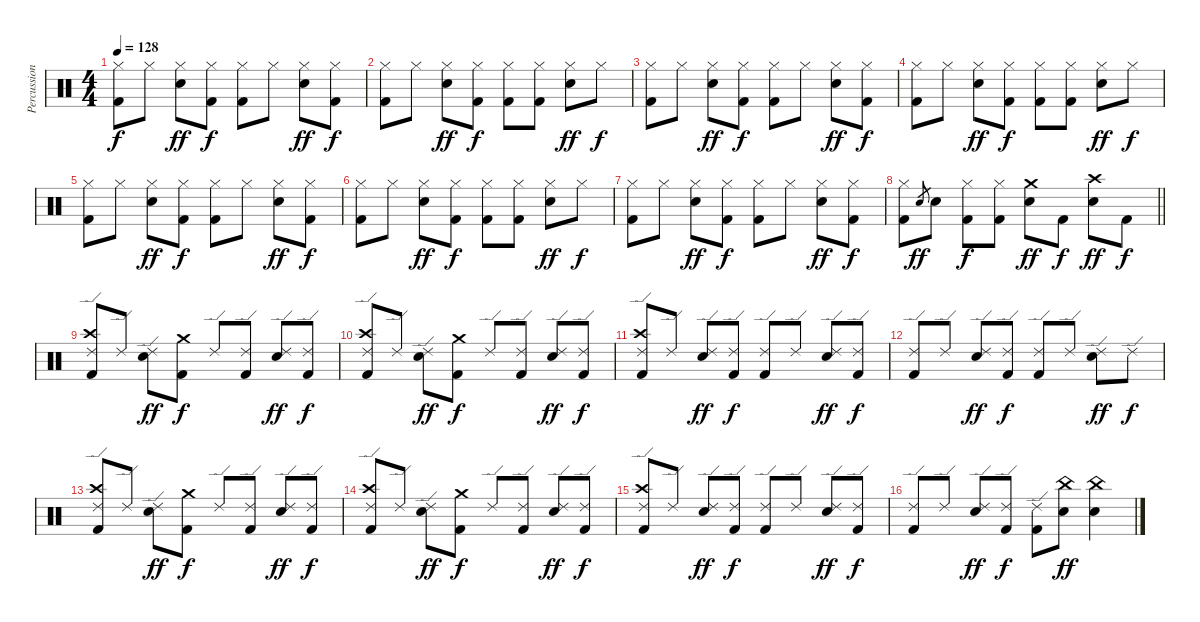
\track ("Percussion" "Percussion") {instrument percussion}
\staff {score}
\articulation defaults
\ts (4 4)
\tempo 128
\clef neutral
\ks c
("Hi-Hat (closed)" "Kick (hit) 2").8{dy f} "Hi-Hat (closed)".8 ("Hi-Hat (closed)" "Snare (hit) 2").8{dy ff} ("Hi-Hat (closed)" "Kick (hit) 2").8{dy f} ("Hi-Hat (closed)" "Kick (hit) 2").8 "Hi-Hat (closed)".8 ("Hi-Hat (closed)" "Snare (hit) 2").8{dy ff} ("Hi-Hat (closed)" "Kick (hit) 2").8{dy f} |
("Hi-Hat (closed)" "Kick (hit) 2").8 "Hi-Hat (closed)".8 ("Hi-Hat (closed)" "Snare (hit) 2").8{dy ff} ("Hi-Hat (closed)" "Kick (hit) 2").8{dy f} ("Hi-Hat (closed)" "Kick (hit) 2").8 ("Hi-Hat (closed)" "Kick (hit) 2").8 ("Hi-Hat (closed)" "Snare (hit) 2").8{dy ff} "Hi-Hat (closed)".8{dy f} |
("Hi-Hat (closed)" "Kick (hit) 2").8 "Hi-Hat (closed)".8 ("Hi-Hat (closed)" "Snare (hit) 2").8{dy ff} ("Hi-Hat (closed)" "Kick (hit) 2").8{dy f} ("Hi-Hat (closed)" "Kick (hit) 2").8 "Hi-Hat (closed)".8 ("Hi-Hat (closed)" "Snare (hit) 2").8{dy ff} ("Hi-Hat (closed)" "Kick (hit) 2").8{dy f} |
("Hi-Hat (closed)" "Kick (hit) 2").8 "Hi-Hat (closed)".8 ("Hi-Hat (closed)" "Snare (hit) 2").8{dy ff} ("Hi-Hat (closed)" "Kick (hit) 2").8{dy f} ("Hi-Hat (closed)" "Kick (hit) 2").8 ("Hi-Hat (closed)" "Kick (hit) 2").8 ("Hi-Hat (closed)" "Snare (hit) 2").8{dy ff} "Hi-Hat (closed)".8{dy f} |
("Hi-Hat (closed)" "Kick (hit) 2").8 "Hi-Hat (closed)".8 ("Hi-Hat (closed)" "Snare (hit) 2").8{dy ff} ("Hi-Hat (closed)" "Kick (hit) 2").8{dy f} ("Hi-Hat (closed)" "Kick (hit) 2").8 "Hi-Hat (closed)".8 ("Hi-Hat (closed)" "Snare (hit) 2").8{dy ff} ("Hi-Hat (closed)" "Kick (hit) 2").8{dy f} |
("Hi-Hat (closed)" "Kick (hit) 2").8 "Hi-Hat (closed)".8 ("Hi-Hat (closed)" "Snare (hit) 2").8{dy ff} ("Hi-Hat (closed)" "Kick (hit) 2").8{dy f} ("Hi-Hat (closed)" "Kick (hit) 2").8 ("Hi-Hat (closed)" "Kick (hit) 2").8 ("Hi-Hat (closed)" "Snare (hit) 2").8{dy ff} "Hi-Hat (closed)".8{dy f} |
("Hi-Hat (closed)" "Kick (hit) 2").8 "Hi-Hat (closed)".8 ("Hi-Hat (closed)" "Snare (hit) 2").8{dy ff} ("Hi-Hat (closed)" "Kick (hit) 2").8{dy f} ("Hi-Hat (closed)" "Kick (hit) 2").8 "Hi-Hat (closed)".8 ("Hi-Hat (closed)" "Snare (hit) 2").8{dy ff} ("Hi-Hat (closed)" "Kick (hit) 2").8{dy f} |
\barLineRight lightlight
("Hi-Hat (closed)" "Kick (hit) 2").8 "Snare (hit) 2".8{gr dy ff} "Snare (hit) 2".8 ("Hi-Hat (closed)" "Kick (hit) 2").8{dy f} ("Hi-Hat (closed)" "Kick (hit) 2").8 ("Crash medium (hit)" "Snare (hit) 2").8{dy ff} "Kick (hit) 2".8{dy f} ("Crash high (hit)" "Snare (hit) 2").8{dy ff} "Kick (hit) 2".8{dy f} |
("Crash high (hit)" "Ride (edge) 2" "Kick (hit) 2").8 "Ride (edge) 2".8 ("Ride (edge) 2" "Snare (hit) 2").8{dy ff} ("Crash medium (hit)" "Kick (hit) 2").8{dy f} "Ride (edge) 2".8 ("Ride (edge) 2" "Kick (hit) 2").8 ("Ride (edge) 2" "Snare (hit) 2").8{dy ff} ("Ride (edge) 2" "Kick (hit) 2").8{dy f} |
("Crash high (hit)" "Ride (edge) 2" "Kick (hit) 2").8 "Ride (edge) 2".8 ("Ride (edge) 2" "Snare (hit) 2").8{dy ff} ("Crash medium (hit)" "Kick (hit) 2").8{dy f} "Ride (edge) 2".8 ("Ride (edge) 2" "Kick (hit) 2").8 ("Ride (edge) 2" "Snare (hit) 2").8{dy ff} ("Ride (edge) 2" "Kick (hit) 2").8{dy f} |
("Crash high (hit)" "Ride (edge) 2" "Kick (hit) 2").8 "Ride (edge) 2".8 ("Ride (edge) 2" "Snare (hit) 2").8{dy ff} ("Ride (edge) 2" "Kick (hit) 2").8{dy f} ("Ride (edge) 2" "Kick (hit) 2").8 "Ride (edge) 2".8 ("Ride (edge) 2" "Snare (hit) 2").8{dy ff} ("Ride (edge) 2" "Kick (hit) 2").8{dy f} |
("Ride (edge) 2" "Kick (hit) 2").8 "Ride (edge) 2".8 ("Ride (edge) 2" "Snare (hit) 2").8{dy ff} ("Ride (edge) 2" "Kick (hit) 2").8{dy f} ("Ride (edge) 2" "Kick (hit) 2").8 "Ride (edge) 2".8 ("Ride (edge) 2" "Snare (hit) 2").8{dy ff} "Ride (edge) 2".8{dy f} |
("Crash high (hit)" "Ride (edge) 2" "Kick (hit) 2").8 "Ride (edge) 2".8 ("Ride (edge) 2" "Snare (hit) 2").8{dy ff} ("Crash medium (hit)" "Kick (hit) 2").8{dy f} "Ride (edge) 2".8 ("Ride (edge) 2" "Kick (hit) 2").8 ("Ride (edge) 2" "Snare (hit) 2").8{dy ff} ("Ride (edge) 2" "Kick (hit) 2").8{dy f} |
("Crash high (hit)" "Ride (edge) 2" "Kick (hit) 2").8 "Ride (edge) 2".8 ("Ride (edge) 2" "Snare (hit) 2").8{dy ff} ("Crash medium (hit)" "Kick (hit) 2").8{dy f} "Ride (edge) 2".8 ("Ride (edge) 2" "Kick (hit) 2").8 ("Ride (edge) 2" "Snare (hit) 2").8{dy ff} ("Ride (edge) 2" "Kick (hit) 2").8{dy f} |
("Crash high (hit)" "Ride (edge) 2" "Kick (hit) 2").8 "Ride (edge) 2".8 ("Ride (edge) 2" "Snare (hit) 2").8{dy ff} ("Ride (edge) 2" "Kick (hit) 2").8{dy f} ("Ride (edge) 2" "Kick (hit) 2").8 "Ride (edge) 2".8 ("Ride (edge) 2" "Snare (hit) 2").8{dy ff} ("Ride (edge) 2" "Kick (hit) 2").8{dy f} |
("Ride (edge) 2" "Kick (hit) 2").8 "Ride (edge) 2".8 ("Ride (edge) 2" "Snare (hit) 2").8{dy ff} ("Ride (edge) 2" "Kick (hit) 2").8{dy f} ("Ride (edge) 2" "Kick (hit) 2").8 ("China (hit)" "Snare (hit) 2").8{dy ff} ("China (hit)" "Snare (hit) 2").4
